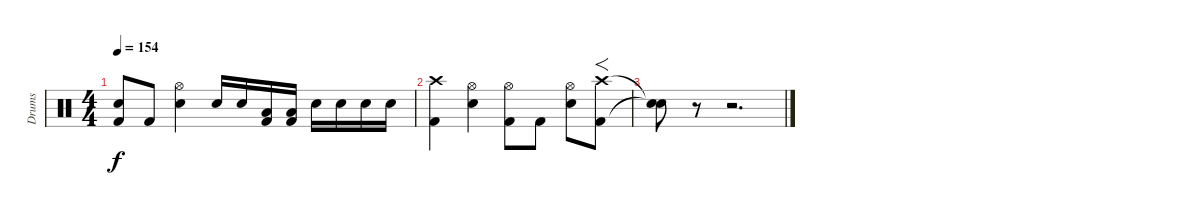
\track ("Drums" "Drums") {instrument percussion}
\staff {score}
\articulation defaults
\ts (4 4)
\tempo 154
\clef neutral
\ks c
("Snare (hit)"{t} "Kick (hit) 2"{t}).8{dy f} "Kick (hit) 2".8 ("Hi-Hat (open)" "Electric Snare (hit)").4 "Electric Snare (hit)".16 "Electric Snare (hit)".16 ("Low Tom (hit)" "Kick (hit) 2").16 ("Low Floor Tom (hit)" "Kick (hit) 2").16 "Electric Snare (hit)".16 "Electric Snare (hit)".16 "Electric Snare (hit)".16 "Electric Snare (hit)".16 |
("Crash high (hit)" "Kick (hit) 2").4 ("Hi-Hat (open)" "Electric Snare (hit)").4 ("Hi-Hat (open)" "Kick (hit) 2").8 "Kick (hit) 2".8 ("Hi-Hat (open)" "Electric Snare (hit)").8 ("Crash high (hit)" "Kick (hit) 2").8{f} |
("Snare (hit)"{t} "Snare (hit)"{t}).8 r.8 r.2{d}
